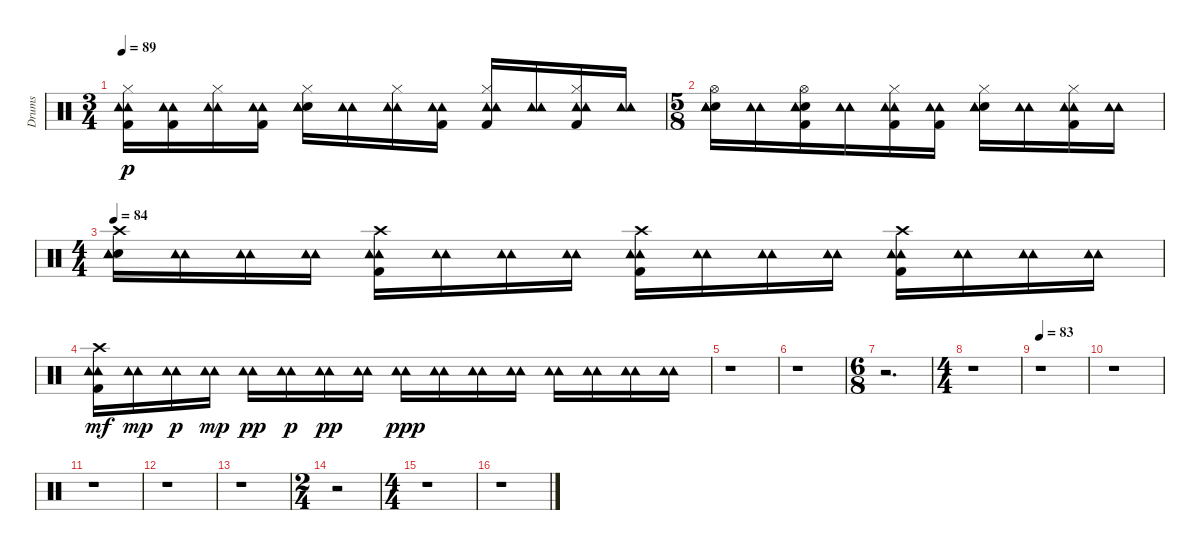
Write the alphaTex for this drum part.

\track ("Drums" "Drums") {instrument percussion}
\staff {score}
\articulation defaults
\ts (3 4)
\tempo 89
\clef neutral
\ks c
("Kick (hit) 2" "Hi-Hat (closed)" "Tambourine (hit)" "Tambourine (hit)").16{dy p} ("Kick (hit) 2" "Tambourine (hit)" "Tambourine (hit)").16 ("Hi-Hat (closed)" "Tambourine (hit)" "Tambourine (hit)").16 ("Kick (hit) 2" "Tambourine (hit)" "Tambourine (hit)").16 ("Snare (hit) 2" "Hi-Hat (closed)" "Tambourine (hit)" "Tambourine (hit)").16 ("Tambourine (hit)" "Tambourine (hit)").16 ("Hi-Hat (closed)" "Tambourine (hit)" "Tambourine (hit)").16 ("Kick (hit) 2" "Tambourine (hit)" "Tambourine (hit)").16 ("Kick (hit) 2" "Hi-Hat (closed)" "Tambourine (hit)" "Tambourine (hit)").16 ("Tambourine (hit)" "Tambourine (hit)").16 ("Kick (hit) 2" "Hi-Hat (closed)" "Tambourine (hit)" "Tambourine (hit)").16 ("Tambourine (hit)" "Tambourine (hit)").16 |
\ts (5 8)
("Snare (hit) 2" "Hi-Hat (open)" "Tambourine (hit)" "Tambourine (hit)").16 ("Tambourine (hit)" "Tambourine (hit)").16 ("Kick (hit) 2" "Snare (hit) 2" "Hi-Hat (open)" "Tambourine (hit)" "Tambourine (hit)").16 ("Tambourine (hit)" "Tambourine (hit)").16 ("Kick (hit) 2" "Hi-Hat (closed)" "Tambourine (hit)" "Tambourine (hit)").16 ("Kick (hit) 2" "Tambourine (hit)" "Tambourine (hit)").16 ("Snare (hit) 2" "Hi-Hat (closed)" "Tambourine (hit)" "Tambourine (hit)").16 ("Tambourine (hit)" "Tambourine (hit)").16 ("Kick (hit) 2" "Hi-Hat (closed)" "Tambourine (hit)" "Tambourine (hit)").16 ("Tambourine (hit)" "Tambourine (hit)").16 |
\ts (4 4)
\tempo 84
("Snare (hit) 2" "Crash high (hit)" "Tambourine (hit)" "Tambourine (hit)").16 ("Tambourine (hit)" "Tambourine (hit)").16 ("Tambourine (hit)" "Tambourine (hit)").16 ("Tambourine (hit)" "Tambourine (hit)").16 ("Kick (hit) 2" "Crash high (hit)" "Tambourine (hit)" "Tambourine (hit)").16 ("Tambourine (hit)" "Tambourine (hit)").16 ("Tambourine (hit)" "Tambourine (hit)").16 ("Tambourine (hit)" "Tambourine (hit)").16 ("Kick (hit) 2" "Crash high (hit)" "Tambourine (hit)" "Tambourine (hit)").16 ("Tambourine (hit)" "Tambourine (hit)").16 ("Tambourine (hit)" "Tambourine (hit)").16 ("Tambourine (hit)" "Tambourine (hit)").16 ("Kick (hit) 2" "Crash high (hit)" "Tambourine (hit)" "Tambourine (hit)").16 ("Tambourine (hit)" "Tambourine (hit)").16 ("Tambourine (hit)" "Tambourine (hit)").16 ("Tambourine (hit)" "Tambourine (hit)").16 |
("Kick (hit) 2" "Crash high (hit)" "Tambourine (hit)" "Tambourine (hit)").16{dy mf} ("Tambourine (hit)" "Tambourine (hit)").16{dy mp} ("Tambourine (hit)" "Tambourine (hit)").16{dy p} ("Tambourine (hit)" "Tambourine (hit)").16{dy mp} ("Tambourine (hit)" "Tambourine (hit)").16{dy pp} ("Tambourine (hit)" "Tambourine (hit)").16{dy p} ("Tambourine (hit)" "Tambourine (hit)").16{dy pp} ("Tambourine (hit)" "Tambourine (hit)").16 ("Tambourine (hit)" "Tambourine (hit)").16{dy ppp} ("Tambourine (hit)" "Tambourine (hit)").16 ("Tambourine (hit)" "Tambourine (hit)").16 ("Tambourine (hit)" "Tambourine (hit)").16 ("Tambourine (hit)" "Tambourine (hit)").16 ("Tambourine (hit)" "Tambourine (hit)").16 ("Tambourine (hit)" "Tambourine (hit)").16 ("Tambourine (hit)" "Tambourine (hit)").16 |
r.1 |
r.1 |
\ts (6 8)
r.2{d} |
\ts (4 4)
r.1 |
\tempo 83
r.1 |
r.1 |
r.1 |
r.1 |
r.1 |
\ts (2 4)
r.2 |
\ts (4 4)
r.1 |
r.1
